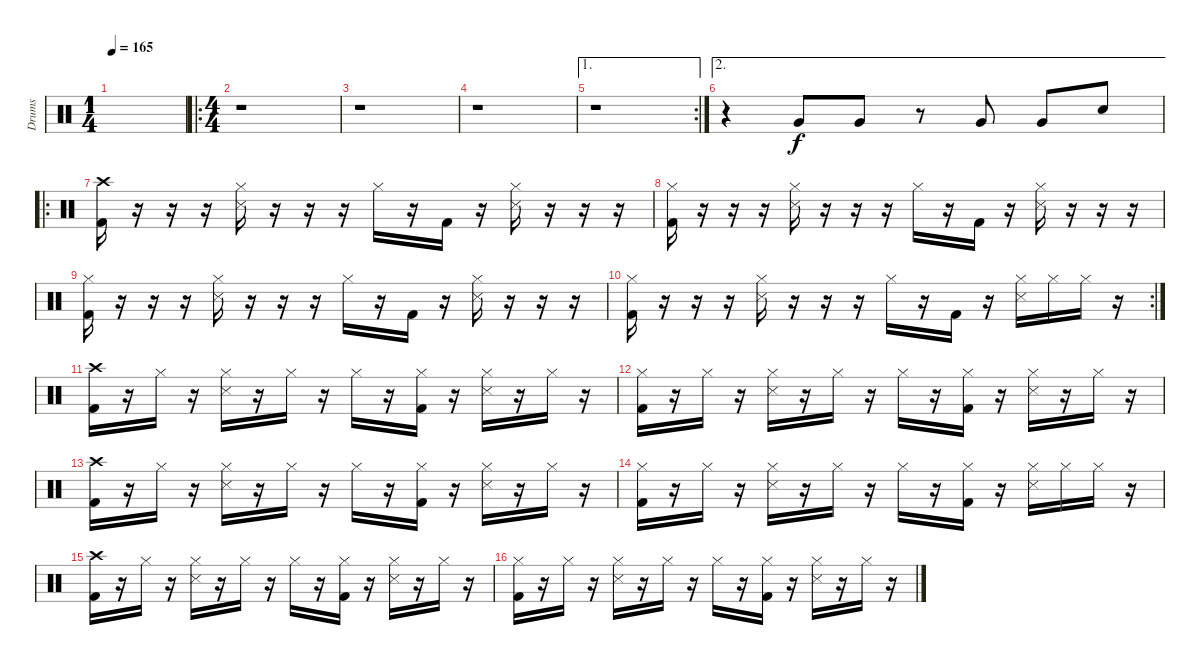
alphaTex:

\track ("Drums" "Drums") {instrument percussion}
\staff {score}
\articulation defaults
\ts (1 4)
\tempo 165
\clef neutral
\ks c
|
\ro
\ts (4 4)
r.1 |
r.1 |
r.1 |
\ae 1
\rc 2
r.1 |
\ae 2
r.4 "Very Low Tom (hit)".8 "Very Low Tom (hit)".8 r.8 "Very Low Tom (hit)".8 "Very Low Tom (hit)".8 "Snare (hit) 2".8 |
\ro
("Kick (hit) 2" "Crash high (hit)").16 r.16 r.16 r.16 ("Hi-Hat (closed)" "Snare (side stick) 3").16 r.16 r.16 r.16 "Hi-Hat (closed)".16 r.16 "Kick (hit) 2".16 r.16 ("Hi-Hat (closed)" "Snare (side stick) 3").16 r.16 r.16 r.16 |
("Kick (hit) 2" "Hi-Hat (closed)").16 r.16 r.16 r.16 ("Hi-Hat (closed)" "Snare (side stick) 3").16 r.16 r.16 r.16 "Hi-Hat (closed)".16 r.16 "Kick (hit) 2".16 r.16 ("Hi-Hat (closed)" "Snare (side stick) 3").16 r.16 r.16 r.16 |
("Kick (hit) 2" "Hi-Hat (closed)").16 r.16 r.16 r.16 ("Hi-Hat (closed)" "Snare (side stick) 3").16 r.16 r.16 r.16 "Hi-Hat (closed)".16 r.16 "Kick (hit) 2".16 r.16 ("Hi-Hat (closed)" "Snare (side stick) 3").16 r.16 r.16 r.16 |
\rc 2
("Kick (hit) 2" "Hi-Hat (closed)").16 r.16 r.16 r.16 ("Hi-Hat (closed)" "Snare (side stick) 3").16 r.16 r.16 r.16 "Hi-Hat (closed)".16 r.16 "Kick (hit) 2".16 r.16 ("Hi-Hat (closed)" "Snare (side stick) 3").16 "Hi-Hat (closed)".16 "Hi-Hat (closed)".16 r.16 |
("Kick (hit) 2" "Crash high (hit)").16 r.16 "Hi-Hat (closed)".16 r.16 ("Hi-Hat (closed)" "Snare (side stick) 3").16 r.16 "Hi-Hat (closed)".16 r.16 "Hi-Hat (closed)".16 r.16 ("Hi-Hat (closed)" "Kick (hit) 2").16 r.16 ("Hi-Hat (closed)" "Snare (side stick) 3").16 r.16 "Hi-Hat (closed)".16 r.16 |
("Kick (hit) 2" "Hi-Hat (closed)").16 r.16 "Hi-Hat (closed)".16 r.16 ("Hi-Hat (closed)" "Snare (side stick) 3").16 r.16 "Hi-Hat (closed)".16 r.16 "Hi-Hat (closed)".16 r.16 ("Hi-Hat (closed)" "Kick (hit) 2").16 r.16 ("Hi-Hat (closed)" "Snare (side stick) 3").16 r.16 "Hi-Hat (closed)".16 r.16 |
("Kick (hit) 2" "Crash high (hit)").16 r.16 "Hi-Hat (closed)".16 r.16 ("Hi-Hat (closed)" "Snare (side stick) 3").16 r.16 "Hi-Hat (closed)".16 r.16 "Hi-Hat (closed)".16 r.16 ("Hi-Hat (closed)" "Kick (hit) 2").16 r.16 ("Hi-Hat (closed)" "Snare (side stick) 3").16 r.16 "Hi-Hat (closed)".16 r.16 |
("Kick (hit) 2" "Hi-Hat (closed)").16 r.16 "Hi-Hat (closed)".16 r.16 ("Hi-Hat (closed)" "Snare (side stick) 3").16 r.16 "Hi-Hat (closed)".16 r.16 "Hi-Hat (closed)".16 r.16 ("Hi-Hat (closed)" "Kick (hit) 2").16 r.16 ("Hi-Hat (closed)" "Snare (side stick) 3").16 "Hi-Hat (closed)".16 "Hi-Hat (closed)".16 r.16 |
("Kick (hit) 2" "Crash high (hit)").16 r.16 "Hi-Hat (closed)".16 r.16 ("Hi-Hat (closed)" "Snare (side stick) 3").16 r.16 "Hi-Hat (closed)".16 r.16 "Hi-Hat (closed)".16 r.16 ("Hi-Hat (closed)" "Kick (hit) 2").16 r.16 ("Hi-Hat (closed)" "Snare (side stick) 3").16 r.16 "Hi-Hat (closed)".16 r.16 |
("Kick (hit) 2" "Hi-Hat (closed)").16 r.16 "Hi-Hat (closed)".16 r.16 ("Hi-Hat (closed)" "Snare (side stick) 3").16 r.16 "Hi-Hat (closed)".16 r.16 "Hi-Hat (closed)".16 r.16 ("Hi-Hat (closed)" "Kick (hit) 2").16 r.16 ("Hi-Hat (closed)" "Snare (side stick) 3").16 r.16 "Hi-Hat (closed)".16 r.16
